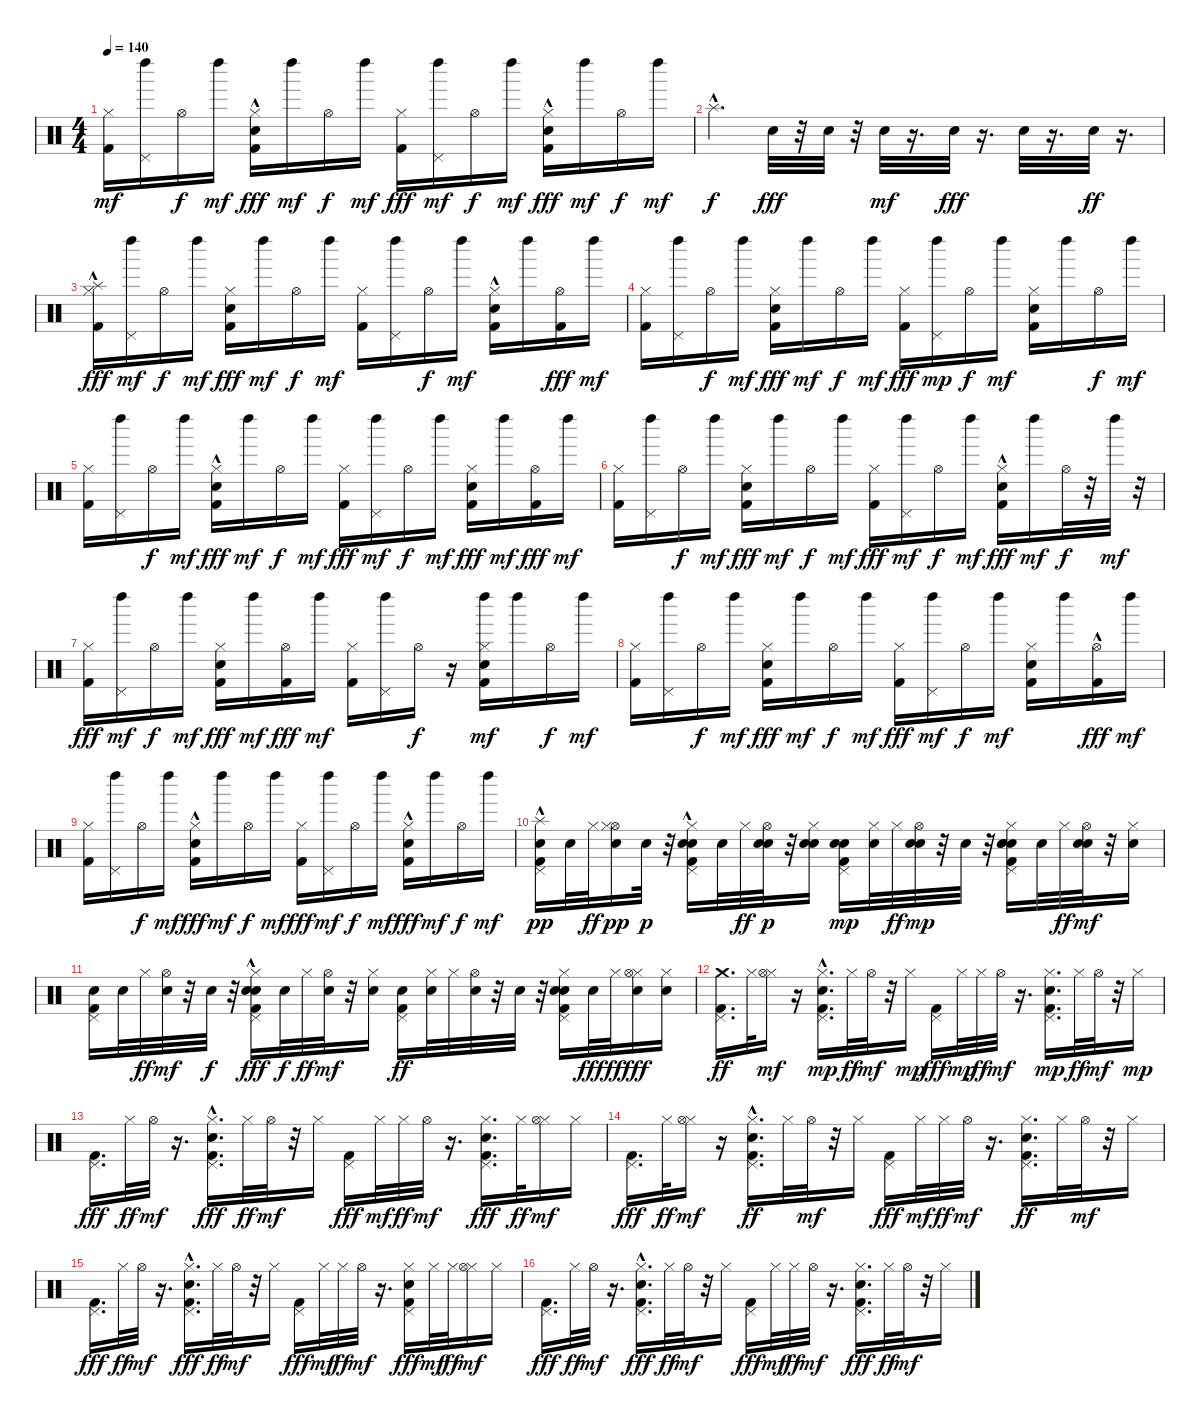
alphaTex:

\track "" {instrument percussion}
\staff {score}
\articulation defaults
\ts (4 4)
\tempo 140
\clef neutral
\ks c
("Kick (hit) 2" "Hi-Hat (closed)").16{dy mf} ("Pedal Hi-Hat (hit)" "Left Maraca (hit)").16 "Hi-Hat (open)".16{dy f} "Left Maraca (hit)".16{dy mf} ("Hand Clap (hit)" "Hi-Hat (closed)" "Kick (hit) 2"{hac}).16{dy fff} "Left Maraca (hit)".16{dy mf} "Hi-Hat (open)".16{dy f} "Left Maraca (hit)".16{dy mf} ("Hi-Hat (closed)" "Kick (hit) 2").16{dy fff} ("Pedal Hi-Hat (hit)" "Left Maraca (hit)").16{dy mf} "Hi-Hat (open)".16{dy f} "Left Maraca (hit)".16{dy mf} ("Hand Clap (hit)"{hac} "Hi-Hat (closed)" "Kick (hit) 2").16{dy fff} "Left Maraca (hit)".16{dy mf} "Hi-Hat (open)".16{dy f} "Left Maraca (hit)".16{dy mf} |
"Splash (hit)"{hac}.4{d dy f} "Snare (hit) 2".32{dy fff} r.32 "Snare (hit) 2".32 r.32 "Snare (hit) 2".32{dy mf} r.16{d} "Snare (hit) 2".32{dy fff} r.16{d} "Snare (hit) 2".32 r.16{d} "Snare (hit) 2".32{dy ff} r.16{d} |
("Splash (hit)"{hac} "Hi-Hat (closed)" "Kick (hit) 2").16{dy fff} ("Pedal Hi-Hat (hit)" "Left Maraca (hit)").16{dy mf} "Hi-Hat (open)".16{dy f} "Left Maraca (hit)".16{dy mf} ("Kick (hit) 2" "Hi-Hat (closed)" "Hand Clap (hit)").16{dy fff} "Left Maraca (hit)".16{dy mf} "Hi-Hat (open)".16{dy f} "Left Maraca (hit)".16{dy mf} ("Kick (hit) 2" "Hi-Hat (closed)").16 ("Pedal Hi-Hat (hit)" "Left Maraca (hit)").16 "Hi-Hat (open)".16{dy f} "Left Maraca (hit)".16{dy mf} ("Hand Clap (hit)"{hac} "Kick (hit) 2" "Hi-Hat (closed)").16 "Left Maraca (hit)".16 ("Kick (hit) 2" "Hi-Hat (open)").16{dy fff} "Left Maraca (hit)".16{dy mf} |
("Kick (hit) 2" "Hi-Hat (closed)").16 ("Pedal Hi-Hat (hit)" "Left Maraca (hit)").16 "Hi-Hat (open)".16{dy f} "Left Maraca (hit)".16{dy mf} ("Hand Clap (hit)" "Hi-Hat (closed)" "Kick (hit) 2").16{dy fff} "Left Maraca (hit)".16{dy mf} "Hi-Hat (open)".16{dy f} "Left Maraca (hit)".16{dy mf} ("Hi-Hat (closed)" "Kick (hit) 2").16{dy fff} ("Left Maraca (hit)" "Pedal Hi-Hat (hit)").16{dy mp} "Hi-Hat (open)".16{dy f} "Left Maraca (hit)".16{dy mf} ("Hand Clap (hit)" "Kick (hit) 2" "Hi-Hat (closed)").16 "Left Maraca (hit)".16 "Hi-Hat (open)".16{dy f} "Left Maraca (hit)".16{dy mf} |
("Kick (hit) 2" "Hi-Hat (closed)").16 ("Pedal Hi-Hat (hit)" "Left Maraca (hit)").16 "Hi-Hat (open)".16{dy f} "Left Maraca (hit)".16{dy mf} ("Hand Clap (hit)" "Hi-Hat (closed)" "Kick (hit) 2"{hac}).16{dy fff} "Left Maraca (hit)".16{dy mf} "Hi-Hat (open)".16{dy f} "Left Maraca (hit)".16{dy mf} ("Hi-Hat (closed)" "Kick (hit) 2").16{dy fff} ("Pedal Hi-Hat (hit)" "Left Maraca (hit)").16{dy mf} "Hi-Hat (open)".16{dy f} "Left Maraca (hit)".16{dy mf} ("Hi-Hat (closed)" "Kick (hit) 2" "Hand Clap (hit)").16{dy fff} "Left Maraca (hit)".16{dy mf} ("Kick (hit) 2" "Hi-Hat (open)").16{dy fff} "Left Maraca (hit)".16{dy mf} |
("Kick (hit) 2" "Hi-Hat (closed)").16 ("Pedal Hi-Hat (hit)" "Left Maraca (hit)").16 "Hi-Hat (open)".16{dy f} "Left Maraca (hit)".16{dy mf} ("Hand Clap (hit)" "Hi-Hat (closed)" "Kick (hit) 2").16{dy fff} "Left Maraca (hit)".16{dy mf} "Hi-Hat (open)".16{dy f} "Left Maraca (hit)".16{dy mf} ("Hi-Hat (closed)" "Kick (hit) 2").16{dy fff} ("Pedal Hi-Hat (hit)" "Left Maraca (hit)").16{dy mf} "Hi-Hat (open)".16{dy f} "Left Maraca (hit)".16{dy mf} ("Hand Clap (hit)" "Hi-Hat (closed)" "Kick (hit) 2"{hac}).16{dy fff} "Left Maraca (hit)".16{dy mf} "Hi-Hat (open)".32{dy f} r.32 "Left Maraca (hit)".32{dy mf} r.32 |
("Hi-Hat (closed)" "Kick (hit) 2").16{dy fff} ("Pedal Hi-Hat (hit)" "Left Maraca (hit)").16{dy mf} "Hi-Hat (open)".16{dy f} "Left Maraca (hit)".16{dy mf} ("Kick (hit) 2" "Hi-Hat (closed)" "Hand Clap (hit)").16{dy fff} "Left Maraca (hit)".16{dy mf} ("Kick (hit) 2" "Hi-Hat (open)").16{dy fff} "Left Maraca (hit)".16{dy mf} ("Kick (hit) 2" "Hi-Hat (closed)").16 ("Pedal Hi-Hat (hit)" "Left Maraca (hit)").16 "Hi-Hat (open)".16{dy f} r.16 ("Left Maraca (hit)" "Hand Clap (hit)" "Kick (hit) 2" "Hi-Hat (closed)").16{dy mf} "Left Maraca (hit)".16 "Hi-Hat (open)".16{dy f} "Left Maraca (hit)".16{dy mf} |
("Kick (hit) 2" "Hi-Hat (closed)").16 ("Pedal Hi-Hat (hit)" "Left Maraca (hit)").16 "Hi-Hat (open)".16{dy f} "Left Maraca (hit)".16{dy mf} ("Hand Clap (hit)" "Hi-Hat (closed)" "Kick (hit) 2").16{dy fff} "Left Maraca (hit)".16{dy mf} "Hi-Hat (open)".16{dy f} "Left Maraca (hit)".16{dy mf} ("Hi-Hat (closed)" "Kick (hit) 2").16{dy fff} ("Pedal Hi-Hat (hit)" "Left Maraca (hit)").16{dy mf} "Hi-Hat (open)".16{dy f} "Left Maraca (hit)".16{dy mf} ("Hand Clap (hit)" "Kick (hit) 2" "Hi-Hat (closed)").16 "Left Maraca (hit)".16 ("Kick (hit) 2"{hac} "Hi-Hat (open)").16{dy fff} "Left Maraca (hit)".16{dy mf} |
("Kick (hit) 2" "Hi-Hat (closed)").16 ("Pedal Hi-Hat (hit)" "Left Maraca (hit)").16 "Hi-Hat (open)".16{dy f} "Left Maraca (hit)".16{dy mf} ("Hand Clap (hit)" "Hi-Hat (closed)" "Kick (hit) 2"{hac}).16{dy fff} "Left Maraca (hit)".16{dy mf} "Hi-Hat (open)".16{dy f} "Left Maraca (hit)".16{dy mf} ("Hi-Hat (closed)" "Kick (hit) 2").16{dy fff} ("Pedal Hi-Hat (hit)" "Left Maraca (hit)").16{dy mf} "Hi-Hat (open)".16{dy f} "Left Maraca (hit)".16{dy mf} ("Hand Clap (hit)"{hac} "Hi-Hat (closed)" "Kick (hit) 2").16{dy fff} "Left Maraca (hit)".16{dy mf} "Hi-Hat (open)".16{dy f} "Left Maraca (hit)".16{dy mf} |
("Splash (hit)"{hac} "Kick (hit) 2" "Pedal Hi-Hat (hit)" "Snare (hit) 2").16{dy pp} "Snare (hit) 2".32 "Hi-Hat (closed)".32{dy ff} ("Hi-Hat (open)" "Hi-Hat (closed)" "Snare (hit) 2").16{dy pp} "Snare (hit) 2".32{dy p} r.32 ("Kick (hit) 2" "Hi-Hat (closed)" "Hand Clap (hit)"{hac} "Pedal Hi-Hat (hit)" "Snare (hit) 2").16 "Snare (hit) 2".32 "Hi-Hat (closed)".32{dy ff} ("Hi-Hat (open)" "Electric Snare (hit)" "Snare (hit) 2").32{dy p} r.32 ("Electric Snare (hit)" "Hi-Hat (closed)" "Snare (hit) 2").16 ("Pedal Hi-Hat (hit)" "Kick (hit) 2" "Electric Snare (hit)" "Snare (hit) 2").16{dy mp} ("Hi-Hat (closed)" "Snare (hit) 2").32 "Hi-Hat (closed)".32{dy ff} ("Hi-Hat (open)" "Electric Snare (hit)" "Snare (hit) 2").32{dy mp} r.32 "Snare (hit) 2".32 r.32 ("Electric Snare (hit)" "Hi-Hat (closed)" "Kick (hit) 2" "Pedal Hi-Hat (hit)" "Hand Clap (hit)" "Snare (hit) 2").16 "Snare (hit) 2".32 "Hi-Hat (closed)".32{dy ff} ("Electric Snare (hit)" "Hi-Hat (open)" "Snare (hit) 2").32{dy mf} r.32 ("Hi-Hat (closed)" "Snare (hit) 2").16 |
("Pedal Hi-Hat (hit)" "Kick (hit) 2" "Snare (hit) 2").16 "Snare (hit) 2".32 "Hi-Hat (closed)".32{dy ff} ("Hi-Hat (open)" "Snare (hit) 2").32{dy mf} r.32 "Snare (hit) 2".32{dy f} r.32 ("Hi-Hat (closed)" "Hand Clap (hit)"{hac} "Pedal Hi-Hat (hit)" "Kick (hit) 2" "Snare (hit) 2").16{dy fff} "Snare (hit) 2".32{dy f} "Hi-Hat (closed)".32{dy ff} ("Hi-Hat (open)" "Snare (hit) 2").32{dy mf} r.32 ("Hi-Hat (closed)" "Snare (hit) 2").16 ("Pedal Hi-Hat (hit)" "Kick (hit) 2" "Snare (hit) 2").16{dy ff} ("Hi-Hat (closed)" "Snare (hit) 2").32 "Hi-Hat (closed)".32 ("Hi-Hat (open)" "Snare (hit) 2").32 r.32 "Snare (hit) 2".32 r.32 ("Hi-Hat (closed)" "Hand Clap (hit)" "Pedal Hi-Hat (hit)" "Kick (hit) 2" "Snare (hit) 2").16 "Snare (hit) 2".32{dy fff} "Hi-Hat (closed)".32{dy ff} ("Hi-Hat (closed)" "Hi-Hat (open)" "Snare (hit) 2").16{dy fff} ("Hi-Hat (closed)" "Snare (hit) 2").16 |
("Crash medium (hit)" "Kick (hit) 2" "Pedal Hi-Hat (hit)").16{d dy ff} "Hi-Hat (closed)".32 ("Hi-Hat (closed)" "Hi-Hat (open)").16{dy mf} r.16 ("Pedal Hi-Hat (hit)" "Kick (hit) 2" "Hi-Hat (closed)" "Hand Clap (hit)"{hac}).16{d dy mp} "Hi-Hat (closed)".32{dy ff} "Hi-Hat (open)".32{dy mf} r.32 "Hi-Hat (closed)".16{dy mp} ("Pedal Hi-Hat (hit)" "Kick (hit) 2").16{dy fff} "Hi-Hat (closed)".32{dy mp} "Hi-Hat (closed)".32{dy ff} "Hi-Hat (open)".32{dy mf} r.16{d} ("Kick (hit) 2" "Pedal Hi-Hat (hit)" "Hand Clap (hit)" "Hi-Hat (closed)").16{d dy mp} "Hi-Hat (closed)".32{dy ff} "Hi-Hat (open)".32{dy mf} r.32 "Hi-Hat (closed)".16{dy mp} |
("Pedal Hi-Hat (hit)" "Kick (hit) 2").16{d dy fff} "Hi-Hat (closed)".32{dy ff} "Hi-Hat (open)".32{dy mf} r.16{d} ("Hi-Hat (closed)" "Hand Clap (hit)"{hac} "Pedal Hi-Hat (hit)" "Kick (hit) 2").16{d dy fff} "Hi-Hat (closed)".32{dy ff} "Hi-Hat (open)".32{dy mf} r.32 "Hi-Hat (closed)".16 ("Pedal Hi-Hat (hit)" "Kick (hit) 2").16{dy fff} "Hi-Hat (closed)".32{dy mf} "Hi-Hat (closed)".32{dy ff} "Hi-Hat (open)".32{dy mf} r.16{d} ("Hi-Hat (closed)" "Hand Clap (hit)" "Pedal Hi-Hat (hit)" "Kick (hit) 2").16{d dy fff} "Hi-Hat (closed)".32{dy ff} ("Hi-Hat (closed)" "Hi-Hat (open)").16{dy mf} "Hi-Hat (closed)".16 |
("Pedal Hi-Hat (hit)" "Kick (hit) 2").16{d dy fff} "Hi-Hat (closed)".32{dy ff} ("Hi-Hat (closed)" "Hi-Hat (open)").16{dy mf} r.16 ("Hi-Hat (closed)" "Kick (hit) 2" "Pedal Hi-Hat (hit)" "Hand Clap (hit)"{hac}).16{d dy ff} "Hi-Hat (closed)".32 "Hi-Hat (open)".32{dy mf} r.32 "Hi-Hat (closed)".16 ("Pedal Hi-Hat (hit)" "Kick (hit) 2").16{dy fff} "Hi-Hat (closed)".32{dy mf} "Hi-Hat (closed)".32{dy ff} "Hi-Hat (open)".32{dy mf} r.16{d} ("Hi-Hat (closed)" "Kick (hit) 2" "Pedal Hi-Hat (hit)" "Hand Clap (hit)").16{d dy ff} "Hi-Hat (closed)".32 "Hi-Hat (open)".32{dy mf} r.32 "Hi-Hat (closed)".16 |
("Pedal Hi-Hat (hit)" "Kick (hit) 2").16{d dy fff} "Hi-Hat (closed)".32{dy ff} "Hi-Hat (open)".32{dy mf} r.16{d} ("Hi-Hat (closed)" "Hand Clap (hit)"{hac} "Pedal Hi-Hat (hit)" "Kick (hit) 2").16{d dy fff} "Hi-Hat (closed)".32{dy ff} "Hi-Hat (open)".32{dy mf} r.32 "Hi-Hat (closed)".16 ("Pedal Hi-Hat (hit)" "Kick (hit) 2").16{dy fff} "Hi-Hat (closed)".32{dy mf} "Hi-Hat (closed)".32{dy ff} "Hi-Hat (open)".32{dy mf} r.16{d} ("Hi-Hat (closed)" "Pedal Hi-Hat (hit)" "Kick (hit) 2" "Hand Clap (hit)").16{dy fff} "Hi-Hat (closed)".32{dy mf} "Hi-Hat (closed)".32{dy ff} ("Hi-Hat (closed)" "Hi-Hat (open)").16{dy mf} "Hi-Hat (closed)".16 |
("Pedal Hi-Hat (hit)" "Kick (hit) 2").16{d dy fff} "Hi-Hat (closed)".32{dy ff} "Hi-Hat (open)".32{dy mf} r.16{d} ("Pedal Hi-Hat (hit)" "Hand Clap (hit)"{hac} "Hi-Hat (closed)" "Kick (hit) 2").16{d dy fff} "Hi-Hat (closed)".32{dy ff} "Hi-Hat (open)".32{dy mf} r.32 "Hi-Hat (closed)".16 ("Pedal Hi-Hat (hit)" "Kick (hit) 2").16{dy fff} "Hi-Hat (closed)".32{dy mf} "Hi-Hat (closed)".32{dy ff} "Hi-Hat (open)".32{dy mf} r.16{d} ("Pedal Hi-Hat (hit)" "Hand Clap (hit)" "Hi-Hat (closed)" "Kick (hit) 2").16{d dy fff} "Hi-Hat (closed)".32{dy ff} "Hi-Hat (open)".32{dy mf} r.32 "Hi-Hat (closed)".16
